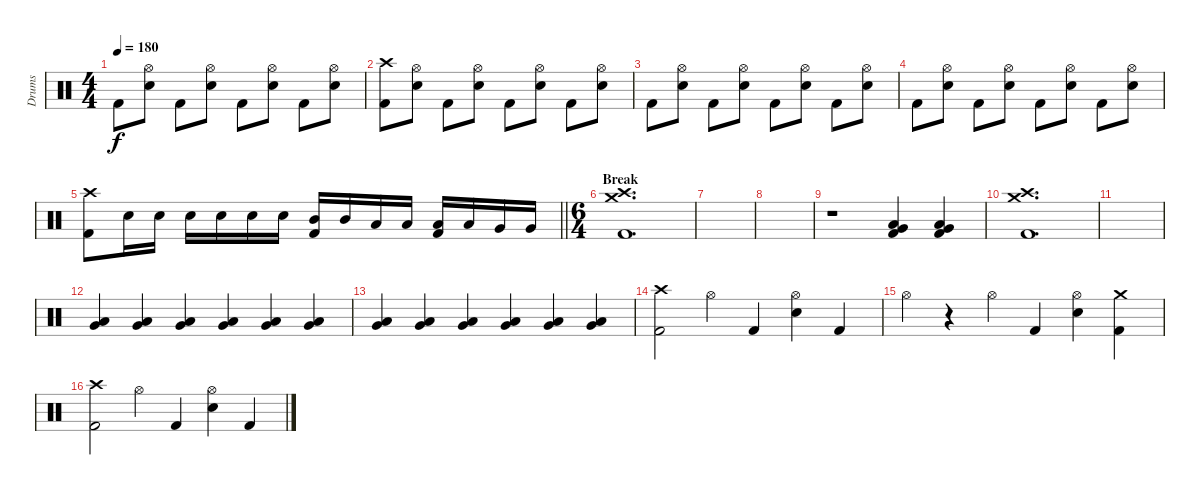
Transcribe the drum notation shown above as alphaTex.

\track ("Drums" "Drums") {instrument percussion}
\staff {score}
\articulation defaults
\ts (4 4)
\tempo 180
\clef neutral
\ks c "Kick (hit) 2".8{dy f}
("Electric Snare (hit)" "Hi-Hat (open)").8 "Kick (hit) 2".8 ("Electric Snare (hit)" "Hi-Hat (open)").8 "Kick (hit) 2".8 ("Electric Snare (hit)" "Hi-Hat (open)").8 "Kick (hit) 2".8 ("Electric Snare (hit)" "Hi-Hat (open)").8 |
("Kick (hit) 2" "Crash high (hit)").8 ("Electric Snare (hit)" "Hi-Hat (open)").8 "Kick (hit) 2".8 ("Electric Snare (hit)" "Hi-Hat (open)").8 "Kick (hit) 2".8 ("Electric Snare (hit)" "Hi-Hat (open)").8 "Kick (hit) 2".8 ("Electric Snare (hit)" "Hi-Hat (open)").8 |
"Kick (hit) 2".8 ("Electric Snare (hit)" "Hi-Hat (open)").8 "Kick (hit) 2".8 ("Electric Snare (hit)" "Hi-Hat (open)").8 "Kick (hit) 2".8 ("Electric Snare (hit)" "Hi-Hat (open)").8 "Kick (hit) 2".8 ("Electric Snare (hit)" "Hi-Hat (open)").8 |
"Kick (hit) 2".8 ("Electric Snare (hit)" "Hi-Hat (open)").8 "Kick (hit) 2".8 ("Electric Snare (hit)" "Hi-Hat (open)").8 "Kick (hit) 2".8 ("Electric Snare (hit)" "Hi-Hat (open)").8 "Kick (hit) 2".8 ("Electric Snare (hit)" "Hi-Hat (open)").8 |
\barLineRight lightlight
("Kick (hit) 2" "Crash high (hit)").8 "Electric Snare (hit)".16 "Electric Snare (hit)".16 "Electric Snare (hit)".16 "Electric Snare (hit)".16 "Electric Snare (hit)".16 "Electric Snare (hit)".16 ("Mid Tom (hit)" "Kick (hit) 2").16 "Mid Tom (hit)".16 "Low Tom (hit)".16 "Low Tom (hit)".16 ("Low Tom (hit)" "Kick (hit) 2").16 "Low Tom (hit)".16 "Very Low Tom (hit)".16 "Very Low Tom (hit)".16 |
\ts (6 4)
\section ("" "Break")
("Kick (hit) 2" "Crash high (hit)" "Crash medium (hit)").1{d} |
|
|
r.1 ("Kick (hit) 2" "Very Low Tom (hit)" "Low Floor Tom (hit)").4 ("Kick (hit) 2" "Very Low Tom (hit)" "Low Floor Tom (hit)").4 |
("Kick (hit) 2" "Crash high (hit)" "Crash medium (hit)").1{d} |
|
("Very Low Tom (hit)" "Low Floor Tom (hit)").4{volume 1} ("Very Low Tom (hit)" "Low Floor Tom (hit)").4{volume 3} ("Very Low Tom (hit)" "Low Floor Tom (hit)").4{volume 5} ("Very Low Tom (hit)" "Low Floor Tom (hit)").4{volume 8} ("Very Low Tom (hit)" "Low Floor Tom (hit)").4{volume 10} ("Very Low Tom (hit)" "Low Floor Tom (hit)").4{volume 12} |
("Very Low Tom (hit)" "Low Floor Tom (hit)").4{volume 14} ("Very Low Tom (hit)" "Low Floor Tom (hit)").4{volume 16} ("Very Low Tom (hit)" "Low Floor Tom (hit)").4 ("Very Low Tom (hit)" "Low Floor Tom (hit)").4 ("Very Low Tom (hit)" "Low Floor Tom (hit)").4 ("Very Low Tom (hit)" "Low Floor Tom (hit)").4 |
("Kick (hit) 2" "Crash high (hit)").2 "Hi-Hat (open)".4 "Kick (hit) 2".4 ("Electric Snare (hit)" "Hi-Hat (open)").4 "Kick (hit) 2".4 |
"Hi-Hat (open)".4 r.4 "Hi-Hat (open)".4 "Kick (hit) 2".4 ("Electric Snare (hit)" "Hi-Hat (open)").4 ("Kick (hit) 2" "Crash medium (hit)").4 |
("Kick (hit) 2" "Crash high (hit)").2 "Hi-Hat (open)".4 "Kick (hit) 2".4 ("Electric Snare (hit)" "Hi-Hat (open)").4 "Kick (hit) 2".4
